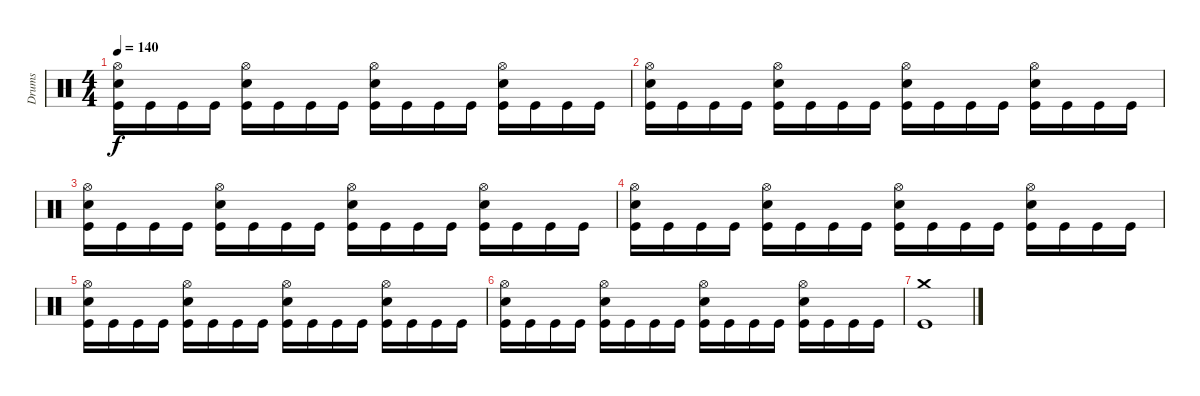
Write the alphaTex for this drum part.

\track ("Drums" "Drums") {instrument percussion}
\staff {score}
\articulation defaults
\ts (4 4)
\tempo 140
\clef neutral
\ks c
("Hi-Hat (open)" "Snare (hit) 2" "Kick (hit)").16{dy f} "Kick (hit)".16 "Kick (hit)".16 "Kick (hit)".16 ("Hi-Hat (open)" "Snare (hit) 2" "Kick (hit)").16 "Kick (hit)".16 "Kick (hit)".16 "Kick (hit)".16 ("Hi-Hat (open)" "Snare (hit) 2" "Kick (hit)").16 "Kick (hit)".16 "Kick (hit)".16 "Kick (hit)".16 ("Hi-Hat (open)" "Snare (hit) 2" "Kick (hit)").16 "Kick (hit)".16 "Kick (hit)".16 "Kick (hit)".16 |
("Hi-Hat (open)" "Snare (hit) 2" "Kick (hit)").16 "Kick (hit)".16 "Kick (hit)".16 "Kick (hit)".16 ("Hi-Hat (open)" "Snare (hit) 2" "Kick (hit)").16 "Kick (hit)".16 "Kick (hit)".16 "Kick (hit)".16 ("Hi-Hat (open)" "Snare (hit) 2" "Kick (hit)").16 "Kick (hit)".16 "Kick (hit)".16 "Kick (hit)".16 ("Hi-Hat (open)" "Snare (hit) 2" "Kick (hit)").16 "Kick (hit)".16 "Kick (hit)".16 "Kick (hit)".16 |
("Hi-Hat (open)" "Snare (hit) 2" "Kick (hit)").16 "Kick (hit)".16 "Kick (hit)".16 "Kick (hit)".16 ("Hi-Hat (open)" "Snare (hit) 2" "Kick (hit)").16 "Kick (hit)".16 "Kick (hit)".16 "Kick (hit)".16 ("Hi-Hat (open)" "Snare (hit) 2" "Kick (hit)").16 "Kick (hit)".16 "Kick (hit)".16 "Kick (hit)".16 ("Hi-Hat (open)" "Snare (hit) 2" "Kick (hit)").16 "Kick (hit)".16 "Kick (hit)".16 "Kick (hit)".16 |
("Hi-Hat (open)" "Snare (hit) 2" "Kick (hit)").16 "Kick (hit)".16 "Kick (hit)".16 "Kick (hit)".16 ("Hi-Hat (open)" "Snare (hit) 2" "Kick (hit)").16 "Kick (hit)".16 "Kick (hit)".16 "Kick (hit)".16 ("Hi-Hat (open)" "Snare (hit) 2" "Kick (hit)").16 "Kick (hit)".16 "Kick (hit)".16 "Kick (hit)".16 ("Hi-Hat (open)" "Snare (hit) 2" "Kick (hit)").16 "Kick (hit)".16 "Kick (hit)".16 "Kick (hit)".16 |
("Hi-Hat (open)" "Snare (hit) 2" "Kick (hit)").16 "Kick (hit)".16 "Kick (hit)".16 "Kick (hit)".16 ("Hi-Hat (open)" "Snare (hit) 2" "Kick (hit)").16 "Kick (hit)".16 "Kick (hit)".16 "Kick (hit)".16 ("Hi-Hat (open)" "Snare (hit) 2" "Kick (hit)").16 "Kick (hit)".16 "Kick (hit)".16 "Kick (hit)".16 ("Hi-Hat (open)" "Snare (hit) 2" "Kick (hit)").16 "Kick (hit)".16 "Kick (hit)".16 "Kick (hit)".16 |
("Hi-Hat (open)" "Snare (hit) 2" "Kick (hit)").16 "Kick (hit)".16 "Kick (hit)".16 "Kick (hit)".16 ("Hi-Hat (open)" "Snare (hit) 2" "Kick (hit)").16 "Kick (hit)".16 "Kick (hit)".16 "Kick (hit)".16 ("Hi-Hat (open)" "Snare (hit) 2" "Kick (hit)").16 "Kick (hit)".16 "Kick (hit)".16 "Kick (hit)".16 ("Hi-Hat (open)" "Snare (hit) 2" "Kick (hit)").16 "Kick (hit)".16 "Kick (hit)".16 "Kick (hit)".16 |
("Crash medium (hit)" "Kick (hit)").1
